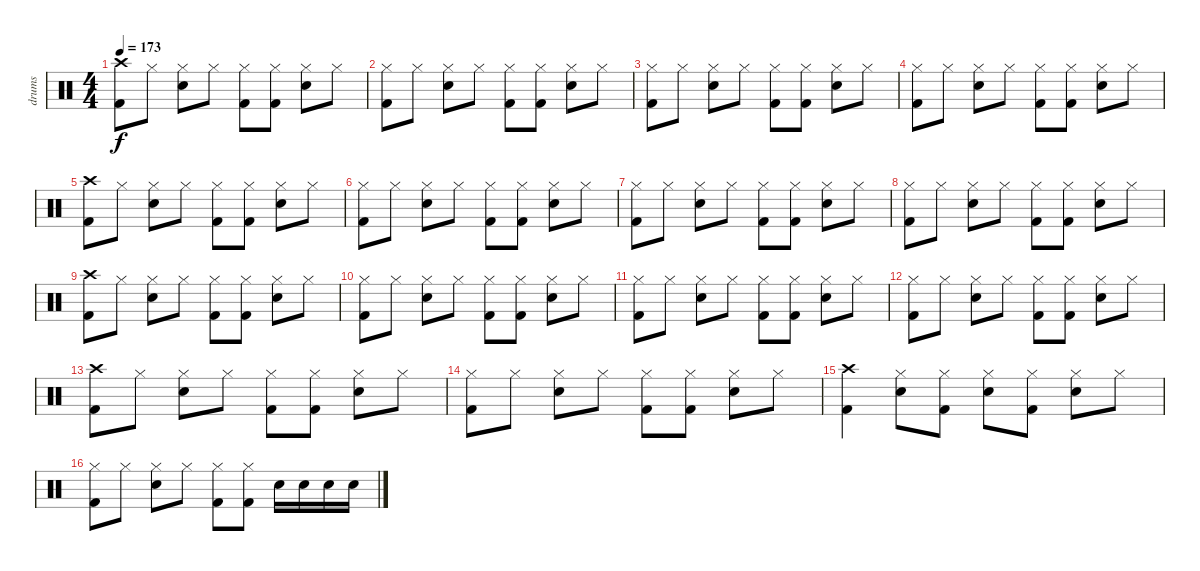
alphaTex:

\track ("drums" "drums") {instrument percussion}
\staff {score}
\articulation defaults
\ts (4 4)
\tempo 173
\clef neutral
\ks c
("Kick (hit) 2" "Crash high (hit)").8{dy f} "Hi-Hat (closed)".8 ("Electric Snare (hit)" "Hi-Hat (closed)").8 "Hi-Hat (closed)".8 ("Kick (hit) 2" "Hi-Hat (closed)").8 ("Kick (hit) 2" "Hi-Hat (closed)").8 ("Electric Snare (hit)" "Hi-Hat (closed)").8 "Hi-Hat (closed)".8 |
("Kick (hit) 2" "Hi-Hat (closed)").8 "Hi-Hat (closed)".8 ("Electric Snare (hit)" "Hi-Hat (closed)").8 "Hi-Hat (closed)".8 ("Kick (hit) 2" "Hi-Hat (closed)").8 ("Kick (hit) 2" "Hi-Hat (closed)").8 ("Electric Snare (hit)" "Hi-Hat (closed)").8 "Hi-Hat (closed)".8 |
("Kick (hit) 2" "Hi-Hat (closed)").8 "Hi-Hat (closed)".8 ("Electric Snare (hit)" "Hi-Hat (closed)").8 "Hi-Hat (closed)".8 ("Kick (hit) 2" "Hi-Hat (closed)").8 ("Kick (hit) 2" "Hi-Hat (closed)").8 ("Electric Snare (hit)" "Hi-Hat (closed)").8 "Hi-Hat (closed)".8 |
("Kick (hit) 2" "Hi-Hat (closed)").8 "Hi-Hat (closed)".8 ("Electric Snare (hit)" "Hi-Hat (closed)").8 "Hi-Hat (closed)".8 ("Kick (hit) 2" "Hi-Hat (closed)").8 ("Kick (hit) 2" "Hi-Hat (closed)").8 ("Electric Snare (hit)" "Hi-Hat (closed)").8 "Hi-Hat (closed)".8 |
("Kick (hit) 2" "Crash high (hit)").8 "Hi-Hat (closed)".8 ("Electric Snare (hit)" "Hi-Hat (closed)").8 "Hi-Hat (closed)".8 ("Kick (hit) 2" "Hi-Hat (closed)").8 ("Kick (hit) 2" "Hi-Hat (closed)").8 ("Electric Snare (hit)" "Hi-Hat (closed)").8 "Hi-Hat (closed)".8 |
("Kick (hit) 2" "Hi-Hat (closed)").8 "Hi-Hat (closed)".8 ("Electric Snare (hit)" "Hi-Hat (closed)").8 "Hi-Hat (closed)".8 ("Kick (hit) 2" "Hi-Hat (closed)").8 ("Kick (hit) 2" "Hi-Hat (closed)").8 ("Electric Snare (hit)" "Hi-Hat (closed)").8 "Hi-Hat (closed)".8 |
("Kick (hit) 2" "Hi-Hat (closed)").8 "Hi-Hat (closed)".8 ("Electric Snare (hit)" "Hi-Hat (closed)").8 "Hi-Hat (closed)".8 ("Kick (hit) 2" "Hi-Hat (closed)").8 ("Kick (hit) 2" "Hi-Hat (closed)").8 ("Electric Snare (hit)" "Hi-Hat (closed)").8 "Hi-Hat (closed)".8 |
("Kick (hit) 2" "Hi-Hat (closed)").8 "Hi-Hat (closed)".8 ("Electric Snare (hit)" "Hi-Hat (closed)").8 "Hi-Hat (closed)".8 ("Kick (hit) 2" "Hi-Hat (closed)").8 ("Kick (hit) 2" "Hi-Hat (closed)").8 ("Electric Snare (hit)" "Hi-Hat (closed)").8 "Hi-Hat (closed)".8 |
("Kick (hit) 2" "Crash high (hit)").8 "Hi-Hat (closed)".8 ("Electric Snare (hit)" "Hi-Hat (closed)").8 "Hi-Hat (closed)".8 ("Kick (hit) 2" "Hi-Hat (closed)").8 ("Kick (hit) 2" "Hi-Hat (closed)").8 ("Electric Snare (hit)" "Hi-Hat (closed)").8 "Hi-Hat (closed)".8 |
("Kick (hit) 2" "Hi-Hat (closed)").8 "Hi-Hat (closed)".8 ("Electric Snare (hit)" "Hi-Hat (closed)").8 "Hi-Hat (closed)".8 ("Kick (hit) 2" "Hi-Hat (closed)").8 ("Kick (hit) 2" "Hi-Hat (closed)").8 ("Electric Snare (hit)" "Hi-Hat (closed)").8 "Hi-Hat (closed)".8 |
("Kick (hit) 2" "Hi-Hat (closed)").8 "Hi-Hat (closed)".8 ("Electric Snare (hit)" "Hi-Hat (closed)").8 "Hi-Hat (closed)".8 ("Kick (hit) 2" "Hi-Hat (closed)").8 ("Kick (hit) 2" "Hi-Hat (closed)").8 ("Electric Snare (hit)" "Hi-Hat (closed)").8 "Hi-Hat (closed)".8 |
("Kick (hit) 2" "Hi-Hat (closed)").8 "Hi-Hat (closed)".8 ("Electric Snare (hit)" "Hi-Hat (closed)").8 "Hi-Hat (closed)".8 ("Kick (hit) 2" "Hi-Hat (closed)").8 ("Kick (hit) 2" "Hi-Hat (closed)").8 ("Electric Snare (hit)" "Hi-Hat (closed)").8 "Hi-Hat (closed)".8 |
("Kick (hit) 2" "Crash high (hit)").8 "Hi-Hat (closed)".8 ("Electric Snare (hit)" "Hi-Hat (closed)").8 "Hi-Hat (closed)".8 ("Kick (hit) 2" "Hi-Hat (closed)").8 ("Kick (hit) 2" "Hi-Hat (closed)").8 ("Electric Snare (hit)" "Hi-Hat (closed)").8 "Hi-Hat (closed)".8 |
("Kick (hit) 2" "Hi-Hat (closed)").8 "Hi-Hat (closed)".8 ("Electric Snare (hit)" "Hi-Hat (closed)").8 "Hi-Hat (closed)".8 ("Kick (hit) 2" "Hi-Hat (closed)").8 ("Kick (hit) 2" "Hi-Hat (closed)").8 ("Electric Snare (hit)" "Hi-Hat (closed)").8 "Hi-Hat (closed)".8 |
("Kick (hit) 2" "Crash high (hit)").4 ("Electric Snare (hit)" "Hi-Hat (closed)").8 ("Kick (hit) 2" "Hi-Hat (closed)").8 ("Electric Snare (hit)" "Hi-Hat (closed)").8 ("Kick (hit) 2" "Hi-Hat (closed)").8 ("Electric Snare (hit)" "Hi-Hat (closed)").8 "Hi-Hat (closed)".8 |
("Kick (hit) 2" "Hi-Hat (closed)").8 "Hi-Hat (closed)".8 ("Electric Snare (hit)" "Hi-Hat (closed)").8 "Hi-Hat (closed)".8 ("Kick (hit) 2" "Hi-Hat (closed)").8 ("Kick (hit) 2" "Hi-Hat (closed)").8 "Electric Snare (hit)".16 "Electric Snare (hit)".16 "Electric Snare (hit)".16 "Electric Snare (hit)".16
